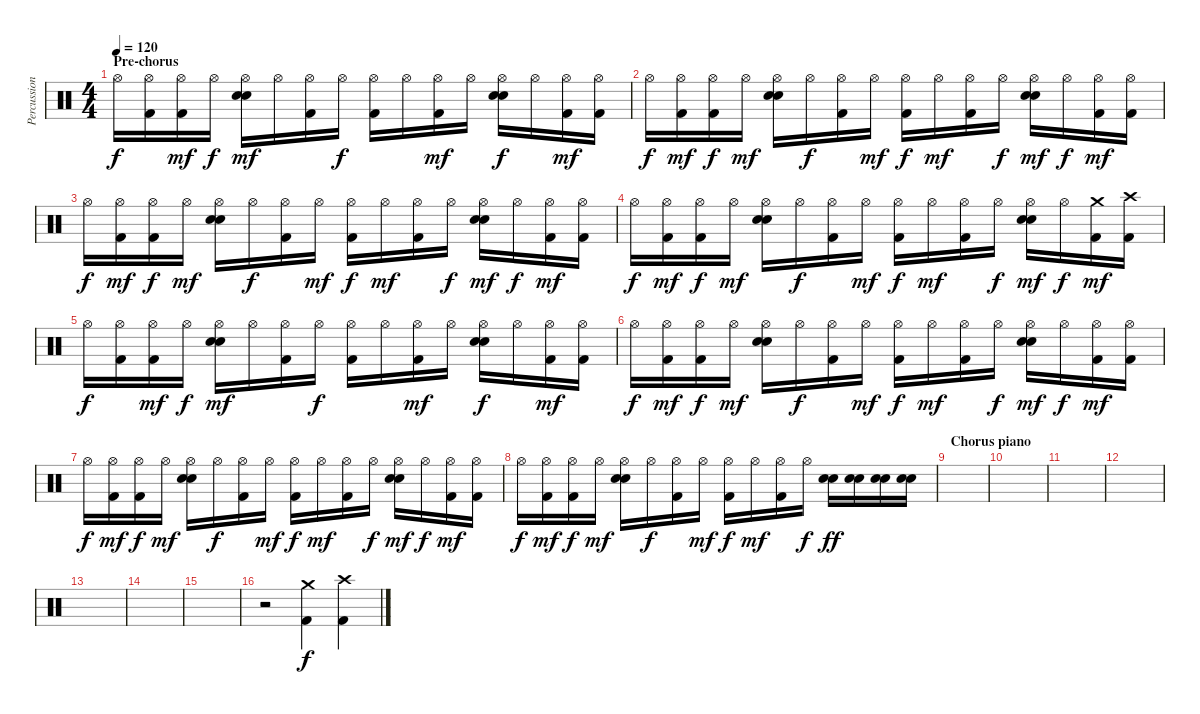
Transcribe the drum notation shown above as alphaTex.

\track ("Percussions" "Percussion") {instrument percussion}
\staff {score}
\articulation defaults
\ts (4 4)
\section ("" "Pre-chorus")
\tempo 120
\clef neutral
\ks c "Hi-Hat (open)".16{dy f}
("Hi-Hat (open)" "Kick (hit) 2").16 ("Hi-Hat (open)" "Kick (hit) 2").16{dy mf} "Hi-Hat (open)".16{dy f} ("Hi-Hat (open)" "Snare (hit) 2" "Electric Snare (hit)").16{dy mf} "Hi-Hat (open)".16 ("Hi-Hat (open)" "Kick (hit) 2").16 "Hi-Hat (open)".16{dy f} ("Hi-Hat (open)" "Kick (hit) 2").16 "Hi-Hat (open)".16 ("Hi-Hat (open)" "Kick (hit) 2").16{dy mf} "Hi-Hat (open)".16 ("Hi-Hat (open)" "Snare (hit) 2" "Electric Snare (hit)").16{dy f} "Hi-Hat (open)".16 ("Hi-Hat (open)" "Kick (hit) 2").16{dy mf} ("Hi-Hat (open)" "Kick (hit) 2").16 |
"Hi-Hat (open)".16{dy f} ("Hi-Hat (open)" "Kick (hit) 2").16{dy mf} ("Hi-Hat (open)" "Kick (hit) 2").16{dy f} "Hi-Hat (open)".16{dy mf} ("Hi-Hat (open)" "Snare (hit) 2" "Electric Snare (hit)").16 "Hi-Hat (open)".16{dy f} ("Hi-Hat (open)" "Kick (hit) 2").16 "Hi-Hat (open)".16{dy mf} ("Hi-Hat (open)" "Kick (hit) 2").16{dy f} "Hi-Hat (open)".16{dy mf} ("Hi-Hat (open)" "Kick (hit) 2").16 "Hi-Hat (open)".16{dy f} ("Hi-Hat (open)" "Snare (hit) 2" "Electric Snare (hit)").16{dy mf} "Hi-Hat (open)".16{dy f} ("Hi-Hat (open)" "Kick (hit) 2").16{dy mf} ("Hi-Hat (open)" "Kick (hit) 2").16 |
"Hi-Hat (open)".16{dy f} ("Hi-Hat (open)" "Kick (hit) 2").16{dy mf} ("Hi-Hat (open)" "Kick (hit) 2").16{dy f} "Hi-Hat (open)".16{dy mf} ("Hi-Hat (open)" "Snare (hit) 2" "Electric Snare (hit)").16 "Hi-Hat (open)".16{dy f} ("Hi-Hat (open)" "Kick (hit) 2").16 "Hi-Hat (open)".16{dy mf} ("Hi-Hat (open)" "Kick (hit) 2").16{dy f} "Hi-Hat (open)".16{dy mf} ("Hi-Hat (open)" "Kick (hit) 2").16 "Hi-Hat (open)".16{dy f} ("Hi-Hat (open)" "Snare (hit) 2" "Electric Snare (hit)").16{dy mf} "Hi-Hat (open)".16{dy f} ("Hi-Hat (open)" "Kick (hit) 2").16{dy mf} ("Hi-Hat (open)" "Kick (hit) 2").16 |
"Hi-Hat (open)".16{dy f} ("Hi-Hat (open)" "Kick (hit) 2").16{dy mf} ("Hi-Hat (open)" "Kick (hit) 2").16{dy f} "Hi-Hat (open)".16{dy mf} ("Hi-Hat (open)" "Snare (hit) 2" "Electric Snare (hit)").16 "Hi-Hat (open)".16{dy f} ("Hi-Hat (open)" "Kick (hit) 2").16 "Hi-Hat (open)".16{dy mf} ("Hi-Hat (open)" "Kick (hit) 2").16{dy f} "Hi-Hat (open)".16{dy mf} ("Hi-Hat (open)" "Kick (hit) 2").16 "Hi-Hat (open)".16{dy f} ("Hi-Hat (open)" "Snare (hit) 2" "Electric Snare (hit)").16{dy mf} "Hi-Hat (open)".16{dy f} ("Crash medium (hit)" "Kick (hit) 2").16{dy mf} ("Crash high (hit)" "Kick (hit) 2").16 |
"Hi-Hat (open)".16{dy f} ("Hi-Hat (open)" "Kick (hit) 2").16 ("Hi-Hat (open)" "Kick (hit) 2").16{dy mf} "Hi-Hat (open)".16{dy f} ("Hi-Hat (open)" "Snare (hit) 2" "Electric Snare (hit)").16{dy mf} "Hi-Hat (open)".16 ("Hi-Hat (open)" "Kick (hit) 2").16 "Hi-Hat (open)".16{dy f} ("Hi-Hat (open)" "Kick (hit) 2").16 "Hi-Hat (open)".16 ("Hi-Hat (open)" "Kick (hit) 2").16{dy mf} "Hi-Hat (open)".16 ("Hi-Hat (open)" "Snare (hit) 2" "Electric Snare (hit)").16{dy f} "Hi-Hat (open)".16 ("Hi-Hat (open)" "Kick (hit) 2").16{dy mf} ("Hi-Hat (open)" "Kick (hit) 2").16 |
"Hi-Hat (open)".16{dy f} ("Hi-Hat (open)" "Kick (hit) 2").16{dy mf} ("Hi-Hat (open)" "Kick (hit) 2").16{dy f} "Hi-Hat (open)".16{dy mf} ("Hi-Hat (open)" "Snare (hit) 2" "Electric Snare (hit)").16 "Hi-Hat (open)".16{dy f} ("Hi-Hat (open)" "Kick (hit) 2").16 "Hi-Hat (open)".16{dy mf} ("Hi-Hat (open)" "Kick (hit) 2").16{dy f} "Hi-Hat (open)".16{dy mf} ("Hi-Hat (open)" "Kick (hit) 2").16 "Hi-Hat (open)".16{dy f} ("Hi-Hat (open)" "Snare (hit) 2" "Electric Snare (hit)").16{dy mf} "Hi-Hat (open)".16{dy f} ("Hi-Hat (open)" "Kick (hit) 2").16{dy mf} ("Hi-Hat (open)" "Kick (hit) 2").16 |
"Hi-Hat (open)".16{dy f} ("Hi-Hat (open)" "Kick (hit) 2").16{dy mf} ("Hi-Hat (open)" "Kick (hit) 2").16{dy f} "Hi-Hat (open)".16{dy mf} ("Hi-Hat (open)" "Snare (hit) 2" "Electric Snare (hit)").16 "Hi-Hat (open)".16{dy f} ("Hi-Hat (open)" "Kick (hit) 2").16 "Hi-Hat (open)".16{dy mf} ("Hi-Hat (open)" "Kick (hit) 2").16{dy f} "Hi-Hat (open)".16{dy mf} ("Hi-Hat (open)" "Kick (hit) 2").16 "Hi-Hat (open)".16{dy f} ("Hi-Hat (open)" "Snare (hit) 2" "Electric Snare (hit)").16{dy mf} "Hi-Hat (open)".16{dy f} ("Hi-Hat (open)" "Kick (hit) 2").16{dy mf} ("Hi-Hat (open)" "Kick (hit) 2").16 |
"Hi-Hat (open)".16{dy f} ("Hi-Hat (open)" "Kick (hit) 2").16{dy mf} ("Hi-Hat (open)" "Kick (hit) 2").16{dy f} "Hi-Hat (open)".16{dy mf} ("Hi-Hat (open)" "Snare (hit) 2" "Electric Snare (hit)").16 "Hi-Hat (open)".16{dy f} ("Hi-Hat (open)" "Kick (hit) 2").16 "Hi-Hat (open)".16{dy mf} ("Hi-Hat (open)" "Kick (hit) 2").16{dy f} "Hi-Hat (open)".16{dy mf} ("Hi-Hat (open)" "Kick (hit) 2").16 "Hi-Hat (open)".16{dy f} ("Snare (hit) 2" "Electric Snare (hit)").16{dy ff} ("Snare (hit) 2" "Electric Snare (hit)").16 ("Snare (hit) 2" "Electric Snare (hit)").16 ("Snare (hit) 2" "Electric Snare (hit)").16 |
\section ("" "Chorus piano")
|
|
|
|
|
|
|
r.2 ("Crash medium (hit)" "Kick (hit) 2").4{dy f} ("Crash high (hit)" "Kick (hit) 2").4
